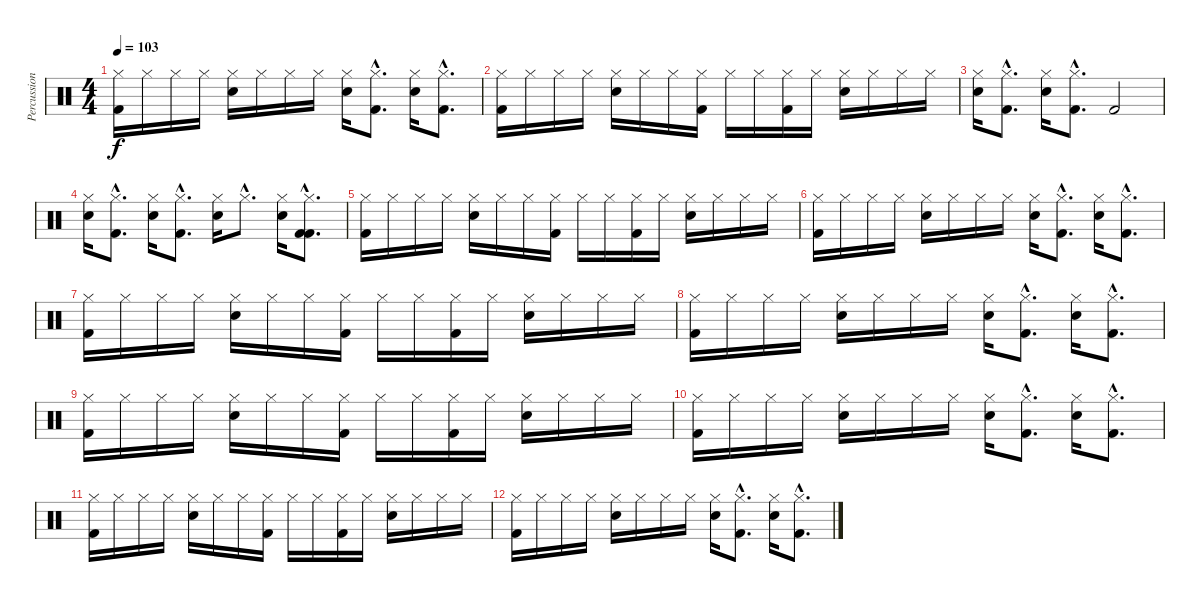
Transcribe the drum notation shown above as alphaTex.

\track ("Percussions" "Percussion") {instrument percussion}
\staff {score}
\articulation defaults
\ts (4 4)
\tempo 103
\clef neutral
\ks c
("Hi-Hat (closed)" "Kick (hit) 2").16{dy f} "Hi-Hat (closed)".16 "Hi-Hat (closed)".16 "Hi-Hat (closed)".16 ("Hi-Hat (closed)" "Snare (hit) 2").16 "Hi-Hat (closed)".16 "Hi-Hat (closed)".16 "Hi-Hat (closed)".16 ("Hi-Hat (closed)" "Snare (hit) 2").16 ("Hi-Hat (closed)"{hac} "Kick (hit) 2"{hac}).8{d} ("Hi-Hat (closed)" "Snare (hit) 2").16 ("Hi-Hat (closed)"{hac} "Kick (hit) 2"{hac}).8{d} |
("Hi-Hat (closed)" "Kick (hit) 2").16 "Hi-Hat (closed)".16 "Hi-Hat (closed)".16 "Hi-Hat (closed)".16 ("Hi-Hat (closed)" "Snare (hit) 2").16 "Hi-Hat (closed)".16 "Hi-Hat (closed)".16 ("Hi-Hat (closed)" "Kick (hit) 2").16 "Hi-Hat (closed)".16 "Hi-Hat (closed)".16 ("Hi-Hat (closed)" "Kick (hit) 2").16 "Hi-Hat (closed)".16 ("Hi-Hat (closed)" "Snare (hit) 2").16 "Hi-Hat (closed)".16 "Hi-Hat (closed)".16 "Hi-Hat (closed)".16 |
("Hi-Hat (closed)" "Snare (hit) 2").16 ("Hi-Hat (closed)"{hac} "Kick (hit) 2"{hac}).8{d} ("Hi-Hat (closed)" "Snare (hit) 2").16 ("Hi-Hat (closed)"{hac} "Kick (hit) 2"{hac}).8{d} "Kick (hit) 2".2 |
("Hi-Hat (closed)" "Snare (hit) 2").16 ("Hi-Hat (closed)"{hac} "Kick (hit) 2"{hac}).8{d} ("Hi-Hat (closed)" "Snare (hit) 2").16 ("Hi-Hat (closed)"{hac} "Kick (hit) 2"{hac}).8{d} ("Hi-Hat (closed)" "Snare (hit) 2").16 "Hi-Hat (closed)"{hac}.8{d} ("Hi-Hat (closed)" "Snare (hit) 2").16 ("Hi-Hat (closed)"{hac} "Kick (hit) 2"{hac} "Kick (hit) 2"{hac}).8{d} |
("Hi-Hat (closed)" "Kick (hit) 2").16 "Hi-Hat (closed)".16 "Hi-Hat (closed)".16 "Hi-Hat (closed)".16 ("Hi-Hat (closed)" "Snare (hit) 2").16 "Hi-Hat (closed)".16 "Hi-Hat (closed)".16 ("Hi-Hat (closed)" "Kick (hit) 2").16 "Hi-Hat (closed)".16 "Hi-Hat (closed)".16 ("Hi-Hat (closed)" "Kick (hit) 2").16 "Hi-Hat (closed)".16 ("Hi-Hat (closed)" "Snare (hit) 2").16 "Hi-Hat (closed)".16 "Hi-Hat (closed)".16 "Hi-Hat (closed)".16 |
("Hi-Hat (closed)" "Kick (hit) 2").16 "Hi-Hat (closed)".16 "Hi-Hat (closed)".16 "Hi-Hat (closed)".16 ("Hi-Hat (closed)" "Snare (hit) 2").16 "Hi-Hat (closed)".16 "Hi-Hat (closed)".16 "Hi-Hat (closed)".16 ("Hi-Hat (closed)" "Snare (hit) 2").16 ("Hi-Hat (closed)"{hac} "Kick (hit) 2"{hac}).8{d} ("Hi-Hat (closed)" "Snare (hit) 2").16 ("Hi-Hat (closed)"{hac} "Kick (hit) 2"{hac}).8{d} |
("Hi-Hat (closed)" "Kick (hit) 2").16 "Hi-Hat (closed)".16 "Hi-Hat (closed)".16 "Hi-Hat (closed)".16 ("Hi-Hat (closed)" "Snare (hit) 2").16 "Hi-Hat (closed)".16 "Hi-Hat (closed)".16 ("Hi-Hat (closed)" "Kick (hit) 2").16 "Hi-Hat (closed)".16 "Hi-Hat (closed)".16 ("Hi-Hat (closed)" "Kick (hit) 2").16 "Hi-Hat (closed)".16 ("Hi-Hat (closed)" "Snare (hit) 2").16 "Hi-Hat (closed)".16 "Hi-Hat (closed)".16 "Hi-Hat (closed)".16 |
("Hi-Hat (closed)" "Kick (hit) 2").16 "Hi-Hat (closed)".16 "Hi-Hat (closed)".16 "Hi-Hat (closed)".16 ("Hi-Hat (closed)" "Snare (hit) 2").16 "Hi-Hat (closed)".16 "Hi-Hat (closed)".16 "Hi-Hat (closed)".16 ("Hi-Hat (closed)" "Snare (hit) 2").16 ("Hi-Hat (closed)"{hac} "Kick (hit) 2"{hac}).8{d} ("Hi-Hat (closed)" "Snare (hit) 2").16 ("Hi-Hat (closed)"{hac} "Kick (hit) 2"{hac}).8{d} |
("Hi-Hat (closed)" "Kick (hit) 2").16 "Hi-Hat (closed)".16 "Hi-Hat (closed)".16 "Hi-Hat (closed)".16 ("Hi-Hat (closed)" "Snare (hit) 2").16 "Hi-Hat (closed)".16 "Hi-Hat (closed)".16 ("Hi-Hat (closed)" "Kick (hit) 2").16 "Hi-Hat (closed)".16 "Hi-Hat (closed)".16 ("Hi-Hat (closed)" "Kick (hit) 2").16 "Hi-Hat (closed)".16 ("Hi-Hat (closed)" "Snare (hit) 2").16 "Hi-Hat (closed)".16 "Hi-Hat (closed)".16 "Hi-Hat (closed)".16 |
("Hi-Hat (closed)" "Kick (hit) 2").16 "Hi-Hat (closed)".16 "Hi-Hat (closed)".16 "Hi-Hat (closed)".16 ("Hi-Hat (closed)" "Snare (hit) 2").16 "Hi-Hat (closed)".16 "Hi-Hat (closed)".16 "Hi-Hat (closed)".16 ("Hi-Hat (closed)" "Snare (hit) 2").16 ("Hi-Hat (closed)"{hac} "Kick (hit) 2"{hac}).8{d} ("Hi-Hat (closed)" "Snare (hit) 2").16 ("Hi-Hat (closed)"{hac} "Kick (hit) 2"{hac}).8{d} |
("Hi-Hat (closed)" "Kick (hit) 2").16 "Hi-Hat (closed)".16 "Hi-Hat (closed)".16 "Hi-Hat (closed)".16 ("Hi-Hat (closed)" "Snare (hit) 2").16 "Hi-Hat (closed)".16 "Hi-Hat (closed)".16 ("Hi-Hat (closed)" "Kick (hit) 2").16 "Hi-Hat (closed)".16 "Hi-Hat (closed)".16 ("Hi-Hat (closed)" "Kick (hit) 2").16 "Hi-Hat (closed)".16 ("Hi-Hat (closed)" "Snare (hit) 2").16 "Hi-Hat (closed)".16 "Hi-Hat (closed)".16 "Hi-Hat (closed)".16 |
("Hi-Hat (closed)" "Kick (hit) 2").16 "Hi-Hat (closed)".16 "Hi-Hat (closed)".16 "Hi-Hat (closed)".16 ("Hi-Hat (closed)" "Snare (hit) 2").16 "Hi-Hat (closed)".16 "Hi-Hat (closed)".16 "Hi-Hat (closed)".16 ("Hi-Hat (closed)" "Snare (hit) 2").16 ("Hi-Hat (closed)"{hac} "Kick (hit) 2"{hac}).8{d} ("Hi-Hat (closed)" "Snare (hit) 2").16 ("Hi-Hat (closed)"{hac} "Kick (hit) 2"{hac}).8{d}
